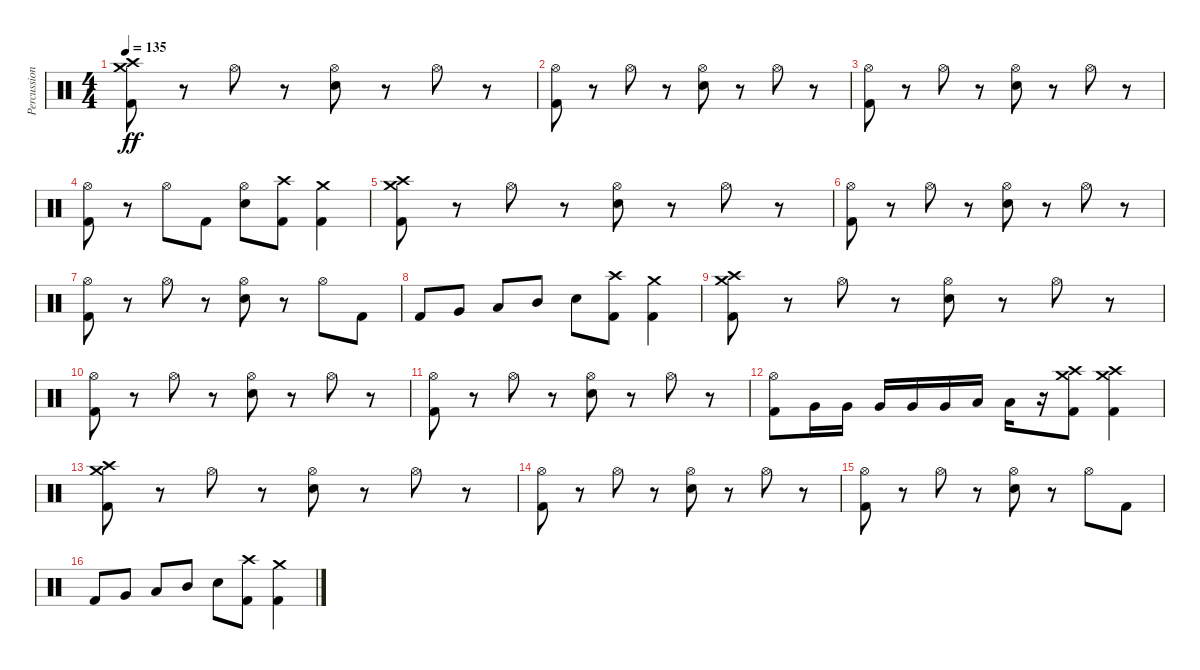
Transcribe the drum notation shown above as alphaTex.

\track ("Percussion" "Percussion") {instrument percussion}
\staff {score}
\articulation defaults
\ts (4 4)
\tempo 135
\clef neutral
\ks c
("Kick (hit) 2" "Crash medium (hit)" "Crash high (hit)").8{dy ff} r.8 "Hi-Hat (open)".8 r.8 ("Electric Snare (hit)" "Hi-Hat (open)").8 r.8 "Hi-Hat (open)".8 r.8 |
("Kick (hit) 2" "Hi-Hat (open)").8 r.8 "Hi-Hat (open)".8 r.8 ("Electric Snare (hit)" "Hi-Hat (open)").8 r.8 "Hi-Hat (open)".8 r.8 |
("Kick (hit) 2" "Hi-Hat (open)").8 r.8 "Hi-Hat (open)".8 r.8 ("Electric Snare (hit)" "Hi-Hat (open)").8 r.8 "Hi-Hat (open)".8 r.8 |
("Kick (hit) 2" "Hi-Hat (open)").8 r.8 "Hi-Hat (open)".8 "Kick (hit) 2".8 ("Electric Snare (hit)" "Hi-Hat (open)").8 ("Kick (hit) 2" "Crash high (hit)").8 ("Kick (hit) 2" "Crash medium (hit)").4 |
("Kick (hit) 2" "Crash medium (hit)" "Crash high (hit)").8 r.8 "Hi-Hat (open)".8 r.8 ("Electric Snare (hit)" "Hi-Hat (open)").8 r.8 "Hi-Hat (open)".8 r.8 |
("Kick (hit) 2" "Hi-Hat (open)").8 r.8 "Hi-Hat (open)".8 r.8 ("Electric Snare (hit)" "Hi-Hat (open)").8 r.8 "Hi-Hat (open)".8 r.8 |
("Kick (hit) 2" "Hi-Hat (open)").8 r.8 "Hi-Hat (open)".8 r.8 ("Electric Snare (hit)" "Hi-Hat (open)").8 r.8 "Hi-Hat (open)".8 "Kick (hit) 2".8 |
"Kick (hit) 2".8 "Very Low Tom (hit)".8 "Low Tom (hit)".8 "Mid Tom (hit)".8 "Electric Snare (hit)".8 ("Kick (hit) 2" "Crash high (hit)").8 ("Kick (hit) 2" "Crash medium (hit)").4 |
("Kick (hit) 2" "Crash medium (hit)" "Crash high (hit)").8 r.8 "Hi-Hat (open)".8 r.8 ("Electric Snare (hit)" "Hi-Hat (open)").8 r.8 "Hi-Hat (open)".8 r.8 |
("Kick (hit) 2" "Hi-Hat (open)").8 r.8 "Hi-Hat (open)".8 r.8 ("Electric Snare (hit)" "Hi-Hat (open)").8 r.8 "Hi-Hat (open)".8 r.8 |
("Kick (hit) 2" "Hi-Hat (open)").8 r.8 "Hi-Hat (open)".8 r.8 ("Electric Snare (hit)" "Hi-Hat (open)").8 r.8 "Hi-Hat (open)".8 r.8 |
("Kick (hit) 2" "Hi-Hat (open)").8 "Very Low Tom (hit)".16 "Very Low Tom (hit)".16 "Very Low Tom (hit)".16 "Very Low Tom (hit)".16 "Very Low Tom (hit)".16 "Low Tom (hit)".16 "Low Tom (hit)".16 r.16 ("Kick (hit) 2" "Crash medium (hit)" "Crash high (hit)").8 ("Kick (hit) 2" "Crash medium (hit)" "Crash high (hit)").4 |
("Kick (hit) 2" "Crash medium (hit)" "Crash high (hit)").8 r.8 "Hi-Hat (open)".8 r.8 ("Electric Snare (hit)" "Hi-Hat (open)").8 r.8 "Hi-Hat (open)".8 r.8 |
("Kick (hit) 2" "Hi-Hat (open)").8 r.8 "Hi-Hat (open)".8 r.8 ("Electric Snare (hit)" "Hi-Hat (open)").8 r.8 "Hi-Hat (open)".8 r.8 |
("Kick (hit) 2" "Hi-Hat (open)").8 r.8 "Hi-Hat (open)".8 r.8 ("Electric Snare (hit)" "Hi-Hat (open)").8 r.8 "Hi-Hat (open)".8 "Kick (hit) 2".8 |
"Kick (hit) 2".8 "Very Low Tom (hit)".8 "Low Tom (hit)".8 "Mid Tom (hit)".8 "Electric Snare (hit)".8 ("Kick (hit) 2" "Crash high (hit)").8 ("Kick (hit) 2" "Crash medium (hit)").4
